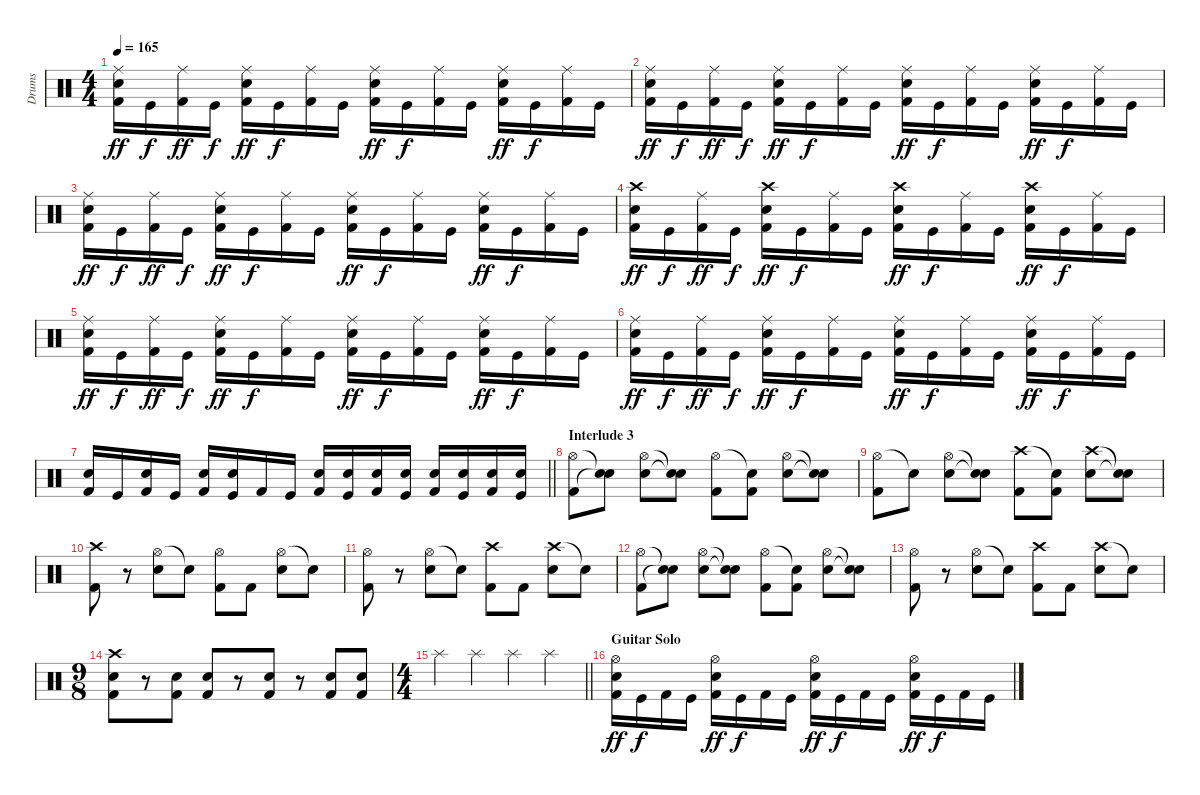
\track ("Drums" "Drums") {instrument percussion}
\staff {score}
\articulation defaults
\ts (4 4)
\tempo 165
\clef neutral
\ks c
("Ride (middle)" "Snare (hit) 2" "Kick (hit) 2").16{dy ff} "Kick (hit)".16{dy f} ("Ride (middle)" "Kick (hit) 2").16{dy ff} "Kick (hit)".16{dy f} ("Ride (middle)" "Snare (hit) 2" "Kick (hit) 2").16{dy ff} "Kick (hit)".16{dy f} ("Ride (middle)" "Kick (hit) 2").16 "Kick (hit)".16 ("Ride (middle)" "Snare (hit) 2" "Kick (hit) 2").16{dy ff} "Kick (hit)".16{dy f} ("Ride (middle)" "Kick (hit) 2").16 "Kick (hit)".16 ("Ride (middle)" "Snare (hit) 2" "Kick (hit) 2").16{dy ff} "Kick (hit)".16{dy f} ("Ride (middle)" "Kick (hit) 2").16 "Kick (hit)".16 |
("Ride (middle)" "Snare (hit) 2" "Kick (hit) 2").16{dy ff} "Kick (hit)".16{dy f} ("Ride (middle)" "Kick (hit) 2").16{dy ff} "Kick (hit)".16{dy f} ("Ride (middle)" "Snare (hit) 2" "Kick (hit) 2").16{dy ff} "Kick (hit)".16{dy f} ("Ride (middle)" "Kick (hit) 2").16 "Kick (hit)".16 ("Ride (middle)" "Snare (hit) 2" "Kick (hit) 2").16{dy ff} "Kick (hit)".16{dy f} ("Ride (middle)" "Kick (hit) 2").16 "Kick (hit)".16 ("Ride (middle)" "Snare (hit) 2" "Kick (hit) 2").16{dy ff} "Kick (hit)".16{dy f} ("Ride (middle)" "Kick (hit) 2").16 "Kick (hit)".16 |
("Ride (middle)" "Snare (hit) 2" "Kick (hit) 2").16{dy ff} "Kick (hit)".16{dy f} ("Ride (middle)" "Kick (hit) 2").16{dy ff} "Kick (hit)".16{dy f} ("Ride (middle)" "Snare (hit) 2" "Kick (hit) 2").16{dy ff} "Kick (hit)".16{dy f} ("Ride (middle)" "Kick (hit) 2").16 "Kick (hit)".16 ("Ride (middle)" "Snare (hit) 2" "Kick (hit) 2").16{dy ff} "Kick (hit)".16{dy f} ("Ride (middle)" "Kick (hit) 2").16 "Kick (hit)".16 ("Ride (middle)" "Snare (hit) 2" "Kick (hit) 2").16{dy ff} "Kick (hit)".16{dy f} ("Ride (middle)" "Kick (hit) 2").16 "Kick (hit)".16 |
("Crash high (hit)" "Snare (hit) 2" "Kick (hit) 2").16{dy ff} "Kick (hit)".16{dy f} ("Ride (middle)" "Kick (hit) 2").16{dy ff} "Kick (hit)".16{dy f} ("Crash high (hit)" "Snare (hit) 2" "Kick (hit) 2").16{dy ff} "Kick (hit)".16{dy f} ("Ride (middle)" "Kick (hit) 2").16 "Kick (hit)".16 ("Crash high (hit)" "Snare (hit) 2" "Kick (hit) 2").16{dy ff} "Kick (hit)".16{dy f} ("Ride (middle)" "Kick (hit) 2").16 "Kick (hit)".16 ("Crash high (hit)" "Snare (hit) 2" "Kick (hit) 2").16{dy ff} "Kick (hit)".16{dy f} ("Ride (middle)" "Kick (hit) 2").16 "Kick (hit)".16 |
("Ride (middle)" "Snare (hit) 2" "Kick (hit) 2").16{dy ff} "Kick (hit)".16{dy f} ("Ride (middle)" "Kick (hit) 2").16{dy ff} "Kick (hit)".16{dy f} ("Ride (middle)" "Snare (hit) 2" "Kick (hit) 2").16{dy ff} "Kick (hit)".16{dy f} ("Ride (middle)" "Kick (hit) 2").16 "Kick (hit)".16 ("Ride (middle)" "Snare (hit) 2" "Kick (hit) 2").16{dy ff} "Kick (hit)".16{dy f} ("Ride (middle)" "Kick (hit) 2").16 "Kick (hit)".16 ("Ride (middle)" "Snare (hit) 2" "Kick (hit) 2").16{dy ff} "Kick (hit)".16{dy f} ("Ride (middle)" "Kick (hit) 2").16 "Kick (hit)".16 |
("Ride (middle)" "Snare (hit) 2" "Kick (hit) 2").16{dy ff} "Kick (hit)".16{dy f} ("Ride (middle)" "Kick (hit) 2").16{dy ff} "Kick (hit)".16{dy f} ("Ride (middle)" "Snare (hit) 2" "Kick (hit) 2").16{dy ff} "Kick (hit)".16{dy f} ("Ride (middle)" "Kick (hit) 2").16 "Kick (hit)".16 ("Ride (middle)" "Snare (hit) 2" "Kick (hit) 2").16{dy ff} "Kick (hit)".16{dy f} ("Ride (middle)" "Kick (hit) 2").16 "Kick (hit)".16 ("Ride (middle)" "Snare (hit) 2" "Kick (hit) 2").16{dy ff} "Kick (hit)".16{dy f} ("Ride (middle)" "Kick (hit) 2").16 "Kick (hit)".16 |
\barLineRight lightlight
("Snare (hit) 2" "Kick (hit) 2").16 "Kick (hit)".16 ("Snare (hit) 2" "Kick (hit) 2").16 "Kick (hit)".16 ("Snare (hit) 2" "Kick (hit) 2").16 ("Snare (hit) 2" "Kick (hit)").16 "Kick (hit) 2".16 "Kick (hit)".16 ("Snare (hit) 2" "Kick (hit) 2").16 ("Snare (hit) 2" "Kick (hit)").16 ("Snare (hit) 2" "Kick (hit) 2").16 ("Snare (hit) 2" "Kick (hit)").16 ("Snare (hit) 2" "Kick (hit) 2").16 ("Snare (hit) 2" "Kick (hit)").16 ("Snare (hit) 2" "Kick (hit) 2").16 ("Snare (hit) 2" "Kick (hit)").16 |
\section ("" "Interlude 3")
("Hi-Hat (open)" "Kick (hit) 2").8 ("Snare (hit)"{t} "Snare (hit)"{t}).8 ("Hi-Hat (open)" "Snare (hit) 2").8 ("Snare (hit)"{t} "Snare (hit)"{t}).8 ("Hi-Hat (open)" "Kick (hit) 2").8 ("Snare (hit)"{t} "Kick (hit) 2").8 ("Hi-Hat (open)" "Snare (hit) 2").8 ("Snare (hit)"{t} "Snare (hit)"{t}).8 |
("Hi-Hat (open)" "Kick (hit) 2").8 "Snare (hit)"{t}.8 ("Hi-Hat (open)" "Snare (hit) 2").8 ("Snare (hit)"{t} "Snare (hit)"{t}).8 ("Crash high (hit)" "Kick (hit) 2").8 ("Snare (hit)"{t} "Kick (hit) 2").8 ("Crash high (hit)" "Snare (hit) 2").8 ("Snare (hit)"{t} "Snare (hit)"{t}).8 |
("Crash high (hit)" "Kick (hit) 2").8 r.8 ("Hi-Hat (open)" "Snare (hit) 2").8 "Snare (hit)"{t}.8 ("Hi-Hat (open)" "Kick (hit) 2").8 "Kick (hit) 2".8 ("Hi-Hat (open)" "Snare (hit) 2").8 "Snare (hit)"{t}.8 |
("Hi-Hat (open)" "Kick (hit) 2").8 r.8 ("Hi-Hat (open)" "Snare (hit) 2").8 "Snare (hit)"{t}.8 ("Crash high (hit)" "Kick (hit) 2").8 "Kick (hit) 2".8 ("Crash high (hit)" "Snare (hit) 2").8 "Snare (hit)"{t}.8 |
("Hi-Hat (open)" "Kick (hit) 2").8 ("Snare (hit)"{t} "Snare (hit)"{t}).8 ("Hi-Hat (open)" "Snare (hit) 2").8 ("Snare (hit)"{t} "Snare (hit)"{t}).8 ("Hi-Hat (open)" "Kick (hit) 2").8 ("Snare (hit)"{t} "Kick (hit) 2").8 ("Hi-Hat (open)" "Snare (hit) 2").8 ("Snare (hit)"{t} "Snare (hit)"{t}).8 |
("Hi-Hat (open)" "Kick (hit) 2").8 r.8 ("Hi-Hat (open)" "Snare (hit) 2").8 "Snare (hit)"{t}.8 ("Crash high (hit)" "Kick (hit) 2").8 "Kick (hit) 2".8 ("Crash high (hit)" "Snare (hit) 2").8 "Snare (hit)"{t}.8 |
\ts (9 8)
("Crash high (hit)" "Snare (hit) 2" "Kick (hit) 2").8 r.8 ("Snare (hit) 2" "Kick (hit) 2").8 ("Snare (hit) 2" "Kick (hit) 2").8 r.8 ("Snare (hit) 2" "Kick (hit) 2").8 r.8 ("Snare (hit) 2" "Kick (hit) 2").8 ("Snare (hit) 2" "Kick (hit) 2").8 |
\ts (4 4)
\barLineRight lightlight "Splash (hit)".4 "Splash (hit)".4 "Splash (hit)".4 "Splash (hit)".4
|
\section ("" "Guitar Solo")
("Hi-Hat (open)" "Snare (hit) 2" "Kick (hit) 2").16{dy ff} "Kick (hit)".16{dy f} "Kick (hit) 2".16 "Kick (hit)".16 ("Hi-Hat (open)" "Snare (hit) 2" "Kick (hit) 2").16{dy ff} "Kick (hit)".16{dy f} "Kick (hit) 2".16 "Kick (hit)".16 ("Hi-Hat (open)" "Snare (hit) 2" "Kick (hit) 2").16{dy ff} "Kick (hit)".16{dy f} "Kick (hit) 2".16 "Kick (hit)".16 ("Hi-Hat (open)" "Snare (hit) 2" "Kick (hit) 2").16{dy ff} "Kick (hit)".16{dy f} "Kick (hit) 2".16 "Kick (hit)".16
